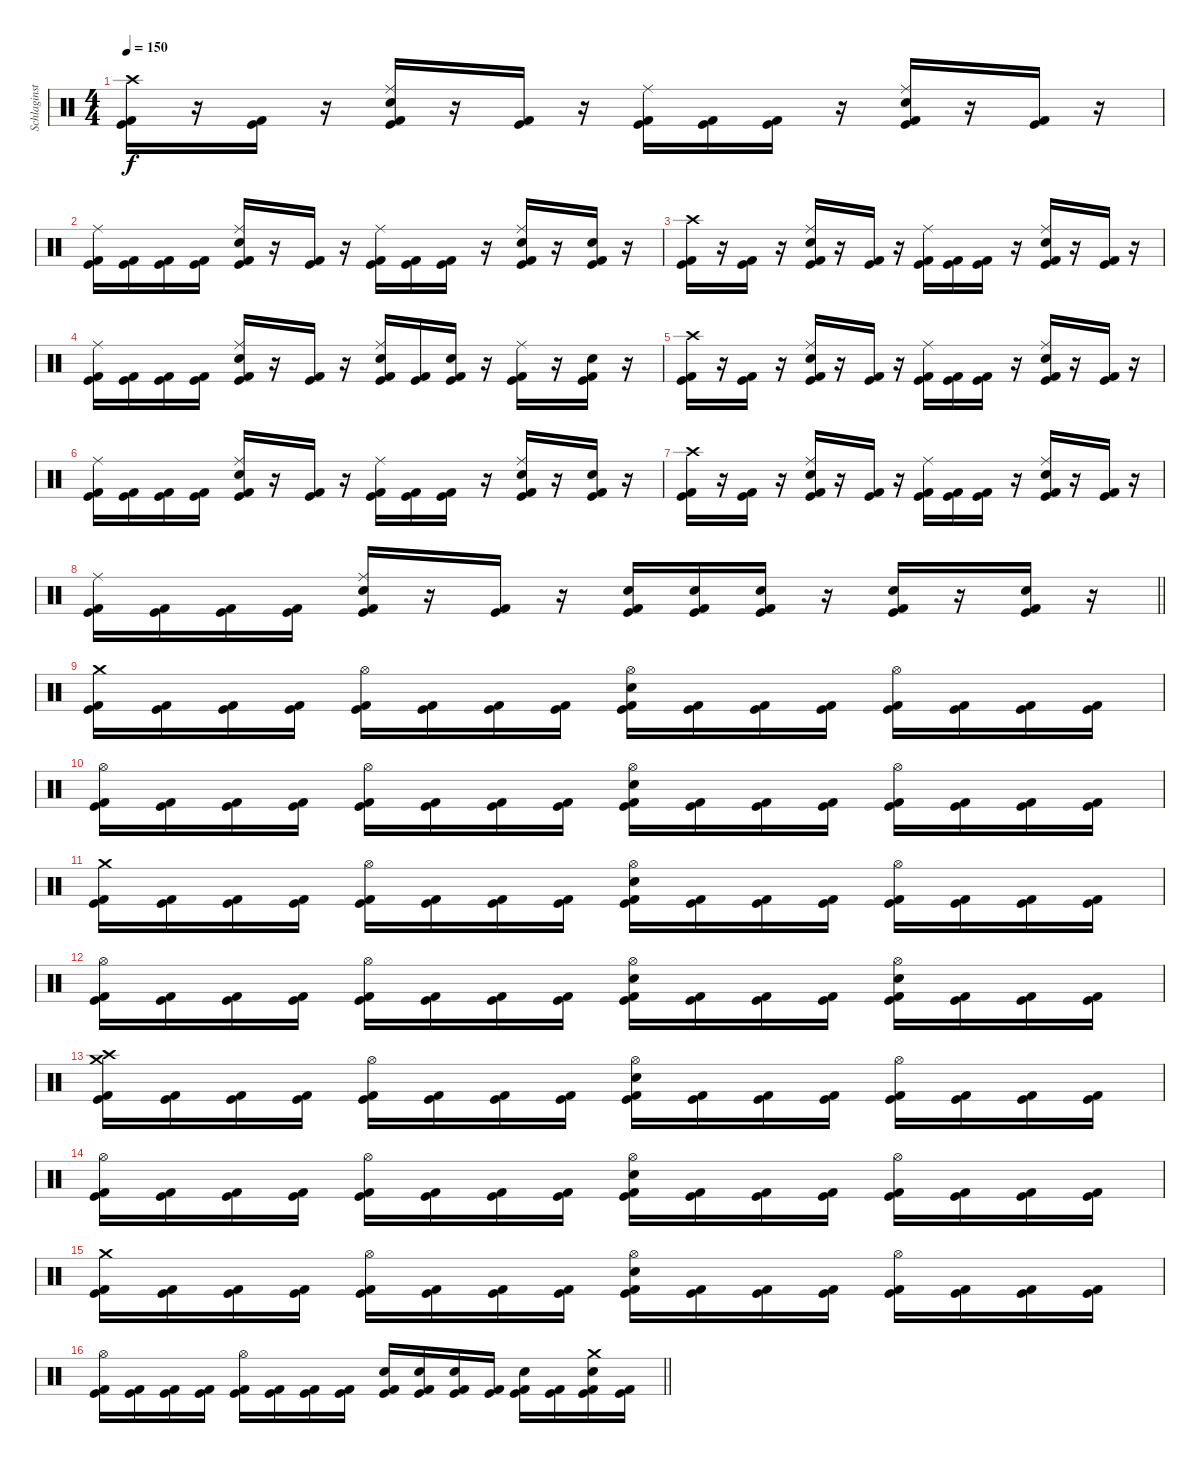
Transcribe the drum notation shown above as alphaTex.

\track ("Schlaginstrumente - Auswahl" "Schlaginst") {instrument percussion}
\staff {score}
\articulation defaults
\ts (4 4)
\tempo 150
\clef neutral
\ks c
("Crash high (hit)" "Kick (hit)" "Kick (hit) 2").16{dy f} r.16 ("Kick (hit)" "Kick (hit) 2").16 r.16 ("Ride (middle)" "Electric Snare (hit)" "Kick (hit)" "Kick (hit) 2").16 r.16 ("Kick (hit)" "Kick (hit) 2").16 r.16 ("Ride (middle)" "Kick (hit)" "Kick (hit) 2").16 ("Kick (hit)" "Kick (hit) 2").16 ("Kick (hit)" "Kick (hit) 2").16 r.16 ("Ride (middle)" "Electric Snare (hit)" "Kick (hit)" "Kick (hit) 2").16 r.16 ("Kick (hit)" "Kick (hit) 2").16 r.16 |
("Ride (middle)" "Kick (hit)" "Kick (hit) 2").16 ("Kick (hit)" "Kick (hit) 2").16 ("Kick (hit)" "Kick (hit) 2").16 ("Kick (hit)" "Kick (hit) 2").16 ("Ride (middle)" "Electric Snare (hit)" "Kick (hit)" "Kick (hit) 2").16 r.16 ("Kick (hit)" "Kick (hit) 2").16 r.16 ("Ride (middle)" "Kick (hit)" "Kick (hit) 2").16 ("Kick (hit)" "Kick (hit) 2").16 ("Kick (hit)" "Kick (hit) 2").16 r.16 ("Ride (middle)" "Electric Snare (hit)" "Kick (hit)" "Kick (hit) 2").16 r.16 ("Electric Snare (hit)" "Kick (hit)" "Kick (hit) 2").16 r.16 |
("Crash high (hit)" "Kick (hit)" "Kick (hit) 2").16 r.16 ("Kick (hit)" "Kick (hit) 2").16 r.16 ("Ride (middle)" "Electric Snare (hit)" "Kick (hit)" "Kick (hit) 2").16 r.16 ("Kick (hit)" "Kick (hit) 2").16 r.16 ("Ride (middle)" "Kick (hit)" "Kick (hit) 2").16 ("Kick (hit)" "Kick (hit) 2").16 ("Kick (hit)" "Kick (hit) 2").16 r.16 ("Ride (middle)" "Electric Snare (hit)" "Kick (hit)" "Kick (hit) 2").16 r.16 ("Kick (hit)" "Kick (hit) 2").16 r.16 |
("Ride (middle)" "Kick (hit)" "Kick (hit) 2").16 ("Kick (hit)" "Kick (hit) 2").16 ("Kick (hit)" "Kick (hit) 2").16 ("Kick (hit)" "Kick (hit) 2").16 ("Ride (middle)" "Electric Snare (hit)" "Kick (hit)" "Kick (hit) 2").16 r.16 ("Kick (hit)" "Kick (hit) 2").16 r.16 ("Ride (middle)" "Electric Snare (hit)" "Kick (hit)" "Kick (hit) 2").16 ("Kick (hit)" "Kick (hit) 2").16 ("Electric Snare (hit)" "Kick (hit)" "Kick (hit) 2").16 r.16 ("Ride (middle)" "Kick (hit)" "Kick (hit) 2").16 r.16 ("Electric Snare (hit)" "Kick (hit)" "Kick (hit) 2").16 r.16 |
("Crash high (hit)" "Kick (hit)" "Kick (hit) 2").16 r.16 ("Kick (hit)" "Kick (hit) 2").16 r.16 ("Ride (middle)" "Electric Snare (hit)" "Kick (hit)" "Kick (hit) 2").16 r.16 ("Kick (hit)" "Kick (hit) 2").16 r.16 ("Ride (middle)" "Kick (hit)" "Kick (hit) 2").16 ("Kick (hit)" "Kick (hit) 2").16 ("Kick (hit)" "Kick (hit) 2").16 r.16 ("Ride (middle)" "Electric Snare (hit)" "Kick (hit)" "Kick (hit) 2").16 r.16 ("Kick (hit)" "Kick (hit) 2").16 r.16 |
("Ride (middle)" "Kick (hit)" "Kick (hit) 2").16 ("Kick (hit)" "Kick (hit) 2").16 ("Kick (hit)" "Kick (hit) 2").16 ("Kick (hit)" "Kick (hit) 2").16 ("Ride (middle)" "Electric Snare (hit)" "Kick (hit)" "Kick (hit) 2").16 r.16 ("Kick (hit)" "Kick (hit) 2").16 r.16 ("Ride (middle)" "Kick (hit)" "Kick (hit) 2").16 ("Kick (hit)" "Kick (hit) 2").16 ("Kick (hit)" "Kick (hit) 2").16 r.16 ("Ride (middle)" "Electric Snare (hit)" "Kick (hit)" "Kick (hit) 2").16 r.16 ("Electric Snare (hit)" "Kick (hit)" "Kick (hit) 2").16 r.16 |
("Crash high (hit)" "Kick (hit)" "Kick (hit) 2").16 r.16 ("Kick (hit)" "Kick (hit) 2").16 r.16 ("Ride (middle)" "Electric Snare (hit)" "Kick (hit)" "Kick (hit) 2").16 r.16 ("Kick (hit)" "Kick (hit) 2").16 r.16 ("Ride (middle)" "Kick (hit)" "Kick (hit) 2").16 ("Kick (hit)" "Kick (hit) 2").16 ("Kick (hit)" "Kick (hit) 2").16 r.16 ("Ride (middle)" "Electric Snare (hit)" "Kick (hit)" "Kick (hit) 2").16 r.16 ("Kick (hit)" "Kick (hit) 2").16 r.16 |
\barLineRight lightlight
("Ride (middle)" "Kick (hit)" "Kick (hit) 2").16 ("Kick (hit)" "Kick (hit) 2").16 ("Kick (hit)" "Kick (hit) 2").16 ("Kick (hit)" "Kick (hit) 2").16 ("Ride (middle)" "Electric Snare (hit)" "Kick (hit)" "Kick (hit) 2").16 r.16 ("Kick (hit)" "Kick (hit) 2").16 r.16 ("Electric Snare (hit)" "Kick (hit)" "Kick (hit) 2").16 ("Electric Snare (hit)" "Kick (hit)" "Kick (hit) 2").16 ("Electric Snare (hit)" "Kick (hit)" "Kick (hit) 2").16 r.16 ("Electric Snare (hit)" "Kick (hit)" "Kick (hit) 2").16 r.16 ("Electric Snare (hit)" "Kick (hit)" "Kick (hit) 2").16 r.16 |
("Crash medium (hit)" "Kick (hit)" "Kick (hit) 2").16 ("Kick (hit)" "Kick (hit) 2").16 ("Kick (hit)" "Kick (hit) 2").16 ("Kick (hit)" "Kick (hit) 2").16 ("Hi-Hat (open)" "Kick (hit)" "Kick (hit) 2").16 ("Kick (hit)" "Kick (hit) 2").16 ("Kick (hit)" "Kick (hit) 2").16 ("Kick (hit)" "Kick (hit) 2").16 ("Hi-Hat (open)" "Electric Snare (hit)" "Kick (hit)" "Kick (hit) 2").16 ("Kick (hit)" "Kick (hit) 2").16 ("Kick (hit)" "Kick (hit) 2").16 ("Kick (hit)" "Kick (hit) 2").16 ("Hi-Hat (open)" "Kick (hit)" "Kick (hit) 2").16 ("Kick (hit)" "Kick (hit) 2").16 ("Kick (hit)" "Kick (hit) 2").16 ("Kick (hit)" "Kick (hit) 2").16 |
("Hi-Hat (open)" "Kick (hit)" "Kick (hit) 2").16 ("Kick (hit)" "Kick (hit) 2").16 ("Kick (hit)" "Kick (hit) 2").16 ("Kick (hit)" "Kick (hit) 2").16 ("Hi-Hat (open)" "Kick (hit)" "Kick (hit) 2").16 ("Kick (hit)" "Kick (hit) 2").16 ("Kick (hit)" "Kick (hit) 2").16 ("Kick (hit)" "Kick (hit) 2").16 ("Hi-Hat (open)" "Electric Snare (hit)" "Kick (hit)" "Kick (hit) 2").16 ("Kick (hit)" "Kick (hit) 2").16 ("Kick (hit)" "Kick (hit) 2").16 ("Kick (hit)" "Kick (hit) 2").16 ("Hi-Hat (open)" "Kick (hit)" "Kick (hit) 2").16 ("Kick (hit)" "Kick (hit) 2").16 ("Kick (hit)" "Kick (hit) 2").16 ("Kick (hit)" "Kick (hit) 2").16 |
("Crash medium (hit)" "Kick (hit)" "Kick (hit) 2").16 ("Kick (hit)" "Kick (hit) 2").16 ("Kick (hit)" "Kick (hit) 2").16 ("Kick (hit)" "Kick (hit) 2").16 ("Hi-Hat (open)" "Kick (hit)" "Kick (hit) 2").16 ("Kick (hit)" "Kick (hit) 2").16 ("Kick (hit)" "Kick (hit) 2").16 ("Kick (hit)" "Kick (hit) 2").16 ("Hi-Hat (open)" "Electric Snare (hit)" "Kick (hit)" "Kick (hit) 2").16 ("Kick (hit)" "Kick (hit) 2").16 ("Kick (hit)" "Kick (hit) 2").16 ("Kick (hit)" "Kick (hit) 2").16 ("Hi-Hat (open)" "Kick (hit)" "Kick (hit) 2").16 ("Kick (hit)" "Kick (hit) 2").16 ("Kick (hit)" "Kick (hit) 2").16 ("Kick (hit)" "Kick (hit) 2").16 |
("Hi-Hat (open)" "Kick (hit)" "Kick (hit) 2").16 ("Kick (hit)" "Kick (hit) 2").16 ("Kick (hit)" "Kick (hit) 2").16 ("Kick (hit)" "Kick (hit) 2").16 ("Hi-Hat (open)" "Kick (hit)" "Kick (hit) 2").16 ("Kick (hit)" "Kick (hit) 2").16 ("Kick (hit)" "Kick (hit) 2").16 ("Kick (hit)" "Kick (hit) 2").16 ("Hi-Hat (open)" "Electric Snare (hit)" "Kick (hit)" "Kick (hit) 2").16 ("Kick (hit)" "Kick (hit) 2").16 ("Kick (hit)" "Kick (hit) 2").16 ("Kick (hit)" "Kick (hit) 2").16 ("Hi-Hat (open)" "Electric Snare (hit)" "Kick (hit)" "Kick (hit) 2").16 ("Kick (hit)" "Kick (hit) 2").16 ("Kick (hit)" "Kick (hit) 2").16 ("Kick (hit)" "Kick (hit) 2").16 |
("Crash medium (hit)" "Crash high (hit)" "Kick (hit)" "Kick (hit) 2").16 ("Kick (hit)" "Kick (hit) 2").16 ("Kick (hit)" "Kick (hit) 2").16 ("Kick (hit)" "Kick (hit) 2").16 ("Hi-Hat (open)" "Kick (hit)" "Kick (hit) 2").16 ("Kick (hit)" "Kick (hit) 2").16 ("Kick (hit)" "Kick (hit) 2").16 ("Kick (hit)" "Kick (hit) 2").16 ("Hi-Hat (open)" "Electric Snare (hit)" "Kick (hit)" "Kick (hit) 2").16 ("Kick (hit)" "Kick (hit) 2").16 ("Kick (hit)" "Kick (hit) 2").16 ("Kick (hit)" "Kick (hit) 2").16 ("Hi-Hat (open)" "Kick (hit)" "Kick (hit) 2").16 ("Kick (hit)" "Kick (hit) 2").16 ("Kick (hit)" "Kick (hit) 2").16 ("Kick (hit)" "Kick (hit) 2").16 |
("Hi-Hat (open)" "Kick (hit)" "Kick (hit) 2").16 ("Kick (hit)" "Kick (hit) 2").16 ("Kick (hit)" "Kick (hit) 2").16 ("Kick (hit)" "Kick (hit) 2").16 ("Hi-Hat (open)" "Kick (hit)" "Kick (hit) 2").16 ("Kick (hit)" "Kick (hit) 2").16 ("Kick (hit)" "Kick (hit) 2").16 ("Kick (hit)" "Kick (hit) 2").16 ("Hi-Hat (open)" "Electric Snare (hit)" "Kick (hit)" "Kick (hit) 2").16 ("Kick (hit)" "Kick (hit) 2").16 ("Kick (hit)" "Kick (hit) 2").16 ("Kick (hit)" "Kick (hit) 2").16 ("Hi-Hat (open)" "Kick (hit)" "Kick (hit) 2").16 ("Kick (hit)" "Kick (hit) 2").16 ("Kick (hit)" "Kick (hit) 2").16 ("Kick (hit)" "Kick (hit) 2").16 |
("Crash medium (hit)" "Kick (hit)" "Kick (hit) 2").16 ("Kick (hit)" "Kick (hit) 2").16 ("Kick (hit)" "Kick (hit) 2").16 ("Kick (hit)" "Kick (hit) 2").16 ("Hi-Hat (open)" "Kick (hit)" "Kick (hit) 2").16 ("Kick (hit)" "Kick (hit) 2").16 ("Kick (hit)" "Kick (hit) 2").16 ("Kick (hit)" "Kick (hit) 2").16 ("Hi-Hat (open)" "Electric Snare (hit)" "Kick (hit)" "Kick (hit) 2").16 ("Kick (hit)" "Kick (hit) 2").16 ("Kick (hit)" "Kick (hit) 2").16 ("Kick (hit)" "Kick (hit) 2").16 ("Hi-Hat (open)" "Kick (hit)" "Kick (hit) 2").16 ("Kick (hit)" "Kick (hit) 2").16 ("Kick (hit)" "Kick (hit) 2").16 ("Kick (hit)" "Kick (hit) 2").16 |
\barLineRight lightlight
("Hi-Hat (open)" "Kick (hit)" "Kick (hit) 2").16 ("Kick (hit)" "Kick (hit) 2").16 ("Kick (hit)" "Kick (hit) 2").16 ("Kick (hit)" "Kick (hit) 2").16 ("Hi-Hat (open)" "Kick (hit)" "Kick (hit) 2").16 ("Kick (hit)" "Kick (hit) 2").16 ("Kick (hit)" "Kick (hit) 2").16 ("Kick (hit)" "Kick (hit) 2").16 ("Electric Snare (hit)" "Kick (hit)" "Kick (hit) 2").16 ("Electric Snare (hit)" "Kick (hit)" "Kick (hit) 2").16 ("Electric Snare (hit)" "Kick (hit)" "Kick (hit) 2").16 ("Kick (hit)" "Kick (hit) 2").16 ("Electric Snare (hit)" "Kick (hit)" "Kick (hit) 2").16 ("Kick (hit)" "Kick (hit) 2").16 ("Crash medium (hit)" "Electric Snare (hit)" "Kick (hit)" "Kick (hit) 2").16 ("Kick (hit)" "Kick (hit) 2").16
